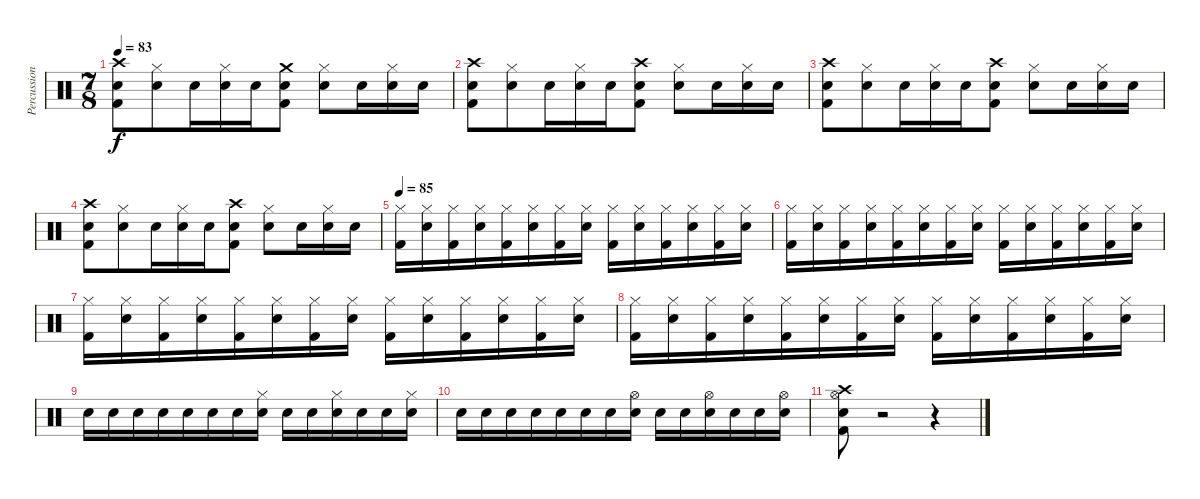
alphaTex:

\track ("Percussion" "Percussion") {instrument percussion}
\staff {score}
\articulation defaults
\ts (7 8)
\tempo 83
\clef neutral
\ks c
("Crash high (hit)" "Electric Snare (hit)" "Kick (hit) 2").8{dy f} ("Hi-Hat (closed)" "Electric Snare (hit)").8 "Electric Snare (hit)".16 ("Hi-Hat (closed)" "Electric Snare (hit)").16 "Electric Snare (hit)".16 ("Crash medium (hit)" "Electric Snare (hit)" "Kick (hit) 2").8 ("Hi-Hat (closed)" "Electric Snare (hit)").8 "Electric Snare (hit)".16 ("Hi-Hat (closed)" "Electric Snare (hit)").16 "Electric Snare (hit)".16 |
("Crash high (hit)" "Electric Snare (hit)" "Kick (hit) 2").8 ("Hi-Hat (closed)" "Electric Snare (hit)").8 "Electric Snare (hit)".16 ("Hi-Hat (closed)" "Electric Snare (hit)").16 "Electric Snare (hit)".16 ("Crash high (hit)" "Electric Snare (hit)" "Kick (hit) 2").8 ("Hi-Hat (closed)" "Electric Snare (hit)").8 "Electric Snare (hit)".16 ("Hi-Hat (closed)" "Electric Snare (hit)").16 "Electric Snare (hit)".16 |
("Crash high (hit)" "Electric Snare (hit)" "Kick (hit) 2").8 ("Hi-Hat (closed)" "Electric Snare (hit)").8 "Electric Snare (hit)".16 ("Hi-Hat (closed)" "Electric Snare (hit)").16 "Electric Snare (hit)".16 ("Crash high (hit)" "Electric Snare (hit)" "Kick (hit) 2").8 ("Hi-Hat (closed)" "Electric Snare (hit)").8 "Electric Snare (hit)".16 ("Hi-Hat (closed)" "Electric Snare (hit)").16 "Electric Snare (hit)".16 |
("Crash high (hit)" "Electric Snare (hit)" "Kick (hit) 2").8 ("Hi-Hat (closed)" "Electric Snare (hit)").8 "Electric Snare (hit)".16 ("Hi-Hat (closed)" "Electric Snare (hit)").16 "Electric Snare (hit)".16 ("Crash high (hit)" "Electric Snare (hit)" "Kick (hit) 2").8 ("Hi-Hat (closed)" "Electric Snare (hit)").8 "Electric Snare (hit)".16 ("Hi-Hat (closed)" "Electric Snare (hit)").16 "Electric Snare (hit)".16 |
\tempo 85
("Hi-Hat (closed)" "Kick (hit) 2").16 ("Hi-Hat (closed)" "Electric Snare (hit)").16 ("Hi-Hat (closed)" "Kick (hit) 2").16 ("Hi-Hat (closed)" "Electric Snare (hit)").16 ("Hi-Hat (closed)" "Kick (hit) 2").16 ("Hi-Hat (closed)" "Electric Snare (hit)").16 ("Hi-Hat (closed)" "Kick (hit) 2").16 ("Hi-Hat (closed)" "Electric Snare (hit)").16 ("Hi-Hat (closed)" "Kick (hit) 2").16 ("Hi-Hat (closed)" "Electric Snare (hit)").16 ("Hi-Hat (closed)" "Kick (hit) 2").16 ("Hi-Hat (closed)" "Electric Snare (hit)").16 ("Hi-Hat (closed)" "Kick (hit) 2").16 ("Hi-Hat (closed)" "Electric Snare (hit)").16 |
("Hi-Hat (closed)" "Kick (hit) 2").16 ("Hi-Hat (closed)" "Electric Snare (hit)").16 ("Hi-Hat (closed)" "Kick (hit) 2").16 ("Hi-Hat (closed)" "Electric Snare (hit)").16 ("Hi-Hat (closed)" "Kick (hit) 2").16 ("Hi-Hat (closed)" "Electric Snare (hit)").16 ("Hi-Hat (closed)" "Kick (hit) 2").16 ("Hi-Hat (closed)" "Electric Snare (hit)").16 ("Hi-Hat (closed)" "Kick (hit) 2").16 ("Hi-Hat (closed)" "Electric Snare (hit)").16 ("Hi-Hat (closed)" "Kick (hit) 2").16 ("Hi-Hat (closed)" "Electric Snare (hit)").16 ("Hi-Hat (closed)" "Kick (hit) 2").16 ("Hi-Hat (closed)" "Electric Snare (hit)").16 |
("Hi-Hat (closed)" "Kick (hit) 2").16 ("Hi-Hat (closed)" "Electric Snare (hit)").16 ("Hi-Hat (closed)" "Kick (hit) 2").16 ("Hi-Hat (closed)" "Electric Snare (hit)").16 ("Hi-Hat (closed)" "Kick (hit) 2").16 ("Hi-Hat (closed)" "Electric Snare (hit)").16 ("Hi-Hat (closed)" "Kick (hit) 2").16 ("Hi-Hat (closed)" "Electric Snare (hit)").16 ("Hi-Hat (closed)" "Kick (hit) 2").16 ("Hi-Hat (closed)" "Electric Snare (hit)").16 ("Hi-Hat (closed)" "Kick (hit) 2").16 ("Hi-Hat (closed)" "Electric Snare (hit)").16 ("Hi-Hat (closed)" "Kick (hit) 2").16 ("Hi-Hat (closed)" "Electric Snare (hit)").16 |
("Hi-Hat (closed)" "Kick (hit) 2").16 ("Hi-Hat (closed)" "Electric Snare (hit)").16 ("Hi-Hat (closed)" "Kick (hit) 2").16 ("Hi-Hat (closed)" "Electric Snare (hit)").16 ("Hi-Hat (closed)" "Kick (hit) 2").16 ("Hi-Hat (closed)" "Electric Snare (hit)").16 ("Hi-Hat (closed)" "Kick (hit) 2").16 ("Hi-Hat (closed)" "Electric Snare (hit)").16 ("Hi-Hat (closed)" "Kick (hit) 2").16 ("Hi-Hat (closed)" "Electric Snare (hit)").16 ("Hi-Hat (closed)" "Kick (hit) 2").16 ("Hi-Hat (closed)" "Electric Snare (hit)").16 ("Hi-Hat (closed)" "Kick (hit) 2").16 ("Hi-Hat (closed)" "Electric Snare (hit)").16 |
"Electric Snare (hit)".16 "Electric Snare (hit)".16 "Electric Snare (hit)".16 "Electric Snare (hit)".16 "Electric Snare (hit)".16 "Electric Snare (hit)".16 "Electric Snare (hit)".16 ("Hi-Hat (closed)" "Electric Snare (hit)").16 "Electric Snare (hit)".16 "Electric Snare (hit)".16 ("Hi-Hat (closed)" "Electric Snare (hit)").16 "Electric Snare (hit)".16 "Electric Snare (hit)".16 ("Hi-Hat (closed)" "Electric Snare (hit)").16 |
"Electric Snare (hit)".16 "Electric Snare (hit)".16 "Electric Snare (hit)".16 "Electric Snare (hit)".16 "Electric Snare (hit)".16 "Electric Snare (hit)".16 "Electric Snare (hit)".16 ("Hi-Hat (open)" "Electric Snare (hit)").16 "Electric Snare (hit)".16 "Electric Snare (hit)".16 ("Hi-Hat (open)" "Electric Snare (hit)").16 "Electric Snare (hit)".16 "Electric Snare (hit)".16 ("Hi-Hat (open)" "Electric Snare (hit)").16 |
("Crash high (hit)" "Hi-Hat (open)" "Electric Snare (hit)" "Kick (hit) 2").8 r.2 r.4
